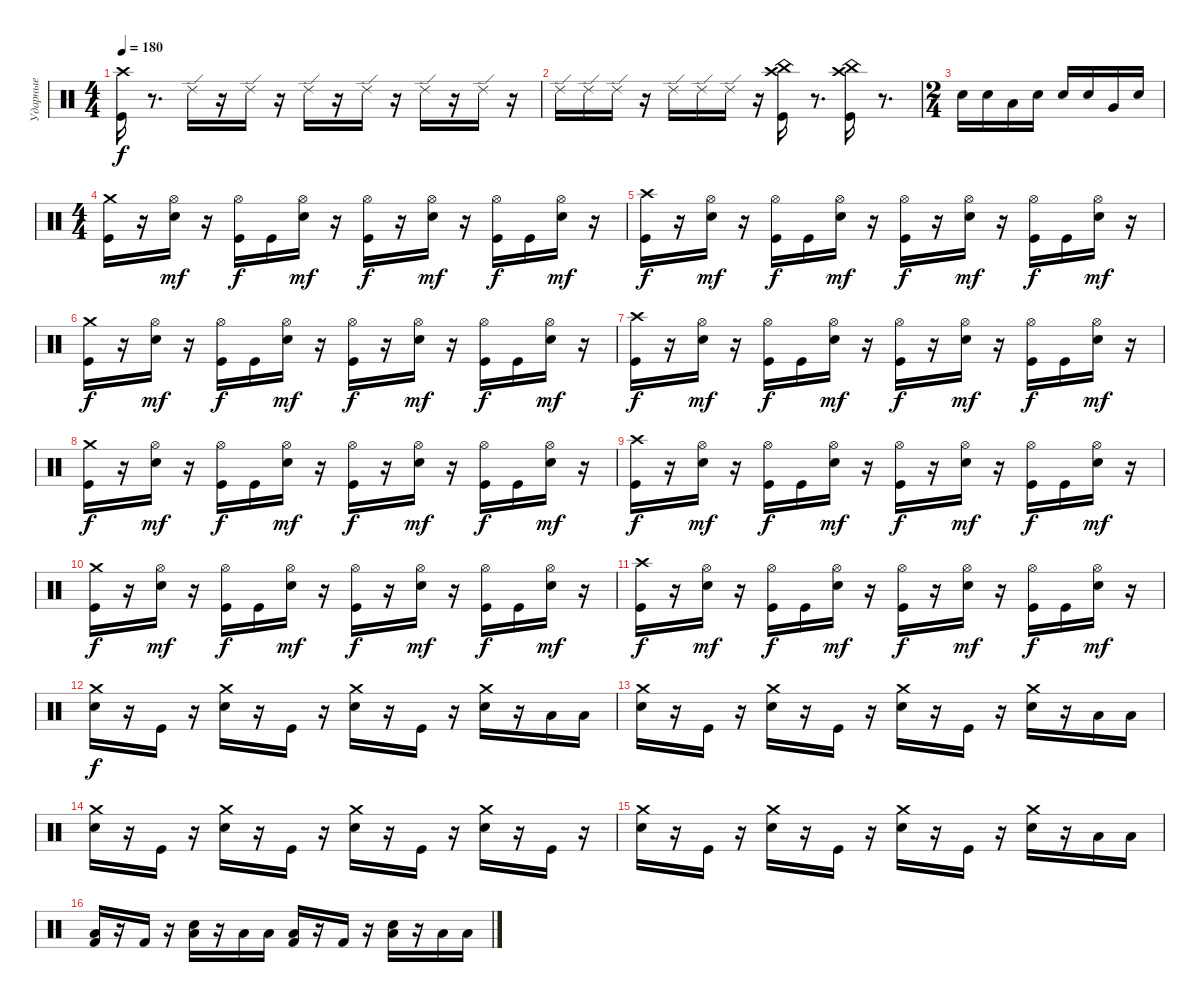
\track ("Ударные" "Ударные") {instrument percussion}
\staff {score}
\articulation defaults
\ts (4 4)
\tempo 180
\clef neutral
\ks c
("Kick (hit)" "Crash high (hit)").16{dy f} r.8{d} "Ride (edge) 2".16 r.16 "Ride (edge) 2".16 r.16 "Ride (edge) 2".16 r.16 "Ride (edge) 2".16 r.16 "Ride (edge) 2".16 r.16 "Ride (edge) 2".16 r.16 |
"Ride (edge) 2".16 "Ride (edge) 2".16 "Ride (edge) 2".16 r.16 "Ride (edge) 2".16 "Ride (edge) 2".16 "Ride (edge) 2".16 r.16 ("China (hit)" "Crash high (hit)" "Kick (hit)").16 r.8{d} ("China (hit)" "Crash high (hit)" "Kick (hit)").16 r.8{d} |
\ts (2 4)
"Electric Snare (hit)".16 "Electric Snare (hit)".16 "Low Floor Tom (hit)".16 "Electric Snare (hit)".16 "Electric Snare (hit)".16 "Electric Snare (hit)".16 "Very Low Tom (hit)".16 "Electric Snare (hit)".16 |
\ts (4 4)
("Kick (hit)" "Crash medium (hit)").16 r.16 ("Electric Snare (hit)" "Hi-Hat (open)").16{dy mf} r.16 ("Kick (hit)" "Hi-Hat (open)").16{dy f} "Kick (hit)".16 ("Electric Snare (hit)" "Hi-Hat (open)").16{dy mf} r.16 ("Kick (hit)" "Hi-Hat (open)").16{dy f} r.16 ("Electric Snare (hit)" "Hi-Hat (open)").16{dy mf} r.16 ("Kick (hit)" "Hi-Hat (open)").16{dy f} "Kick (hit)".16 ("Electric Snare (hit)" "Hi-Hat (open)").16{dy mf} r.16 |
("Kick (hit)" "Crash high (hit)").16{dy f} r.16 ("Electric Snare (hit)" "Hi-Hat (open)").16{dy mf} r.16 ("Kick (hit)" "Hi-Hat (open)").16{dy f} "Kick (hit)".16 ("Electric Snare (hit)" "Hi-Hat (open)").16{dy mf} r.16 ("Kick (hit)" "Hi-Hat (open)").16{dy f} r.16 ("Electric Snare (hit)" "Hi-Hat (open)").16{dy mf} r.16 ("Kick (hit)" "Hi-Hat (open)").16{dy f} "Kick (hit)".16 ("Electric Snare (hit)" "Hi-Hat (open)").16{dy mf} r.16 |
("Crash medium (hit)" "Kick (hit)").16{dy f} r.16 ("Electric Snare (hit)" "Hi-Hat (open)").16{dy mf} r.16 ("Kick (hit)" "Hi-Hat (open)").16{dy f} "Kick (hit)".16 ("Electric Snare (hit)" "Hi-Hat (open)").16{dy mf} r.16 ("Kick (hit)" "Hi-Hat (open)").16{dy f} r.16 ("Electric Snare (hit)" "Hi-Hat (open)").16{dy mf} r.16 ("Kick (hit)" "Hi-Hat (open)").16{dy f} "Kick (hit)".16 ("Electric Snare (hit)" "Hi-Hat (open)").16{dy mf} r.16 |
("Kick (hit)" "Crash high (hit)").16{dy f} r.16 ("Electric Snare (hit)" "Hi-Hat (open)").16{dy mf} r.16 ("Kick (hit)" "Hi-Hat (open)").16{dy f} "Kick (hit)".16 ("Electric Snare (hit)" "Hi-Hat (open)").16{dy mf} r.16 ("Kick (hit)" "Hi-Hat (open)").16{dy f} r.16 ("Electric Snare (hit)" "Hi-Hat (open)").16{dy mf} r.16 ("Kick (hit)" "Hi-Hat (open)").16{dy f} "Kick (hit)".16 ("Electric Snare (hit)" "Hi-Hat (open)").16{dy mf} r.16 |
("Crash medium (hit)" "Kick (hit)").16{dy f} r.16 ("Electric Snare (hit)" "Hi-Hat (open)").16{dy mf} r.16 ("Kick (hit)" "Hi-Hat (open)").16{dy f} "Kick (hit)".16 ("Electric Snare (hit)" "Hi-Hat (open)").16{dy mf} r.16 ("Kick (hit)" "Hi-Hat (open)").16{dy f} r.16 ("Electric Snare (hit)" "Hi-Hat (open)").16{dy mf} r.16 ("Kick (hit)" "Hi-Hat (open)").16{dy f} "Kick (hit)".16 ("Electric Snare (hit)" "Hi-Hat (open)").16{dy mf} r.16 |
("Kick (hit)" "Crash high (hit)").16{dy f} r.16 ("Electric Snare (hit)" "Hi-Hat (open)").16{dy mf} r.16 ("Kick (hit)" "Hi-Hat (open)").16{dy f} "Kick (hit)".16 ("Electric Snare (hit)" "Hi-Hat (open)").16{dy mf} r.16 ("Kick (hit)" "Hi-Hat (open)").16{dy f} r.16 ("Electric Snare (hit)" "Hi-Hat (open)").16{dy mf} r.16 ("Kick (hit)" "Hi-Hat (open)").16{dy f} "Kick (hit)".16 ("Electric Snare (hit)" "Hi-Hat (open)").16{dy mf} r.16 |
("Crash medium (hit)" "Kick (hit)").16{dy f} r.16 ("Electric Snare (hit)" "Hi-Hat (open)").16{dy mf} r.16 ("Kick (hit)" "Hi-Hat (open)").16{dy f} "Kick (hit)".16 ("Electric Snare (hit)" "Hi-Hat (open)").16{dy mf} r.16 ("Kick (hit)" "Hi-Hat (open)").16{dy f} r.16 ("Electric Snare (hit)" "Hi-Hat (open)").16{dy mf} r.16 ("Kick (hit)" "Hi-Hat (open)").16{dy f} "Kick (hit)".16 ("Electric Snare (hit)" "Hi-Hat (open)").16{dy mf} r.16 |
("Kick (hit)" "Crash high (hit)").16{dy f} r.16 ("Electric Snare (hit)" "Hi-Hat (open)").16{dy mf} r.16 ("Kick (hit)" "Hi-Hat (open)").16{dy f} "Kick (hit)".16 ("Electric Snare (hit)" "Hi-Hat (open)").16{dy mf} r.16 ("Kick (hit)" "Hi-Hat (open)").16{dy f} r.16 ("Electric Snare (hit)" "Hi-Hat (open)").16{dy mf} r.16 ("Kick (hit)" "Hi-Hat (open)").16{dy f} "Kick (hit)".16 ("Electric Snare (hit)" "Hi-Hat (open)").16{dy mf} r.16 |
("Electric Snare (hit)" "Crash medium (hit)").16{dy f} r.16 "Kick (hit)".16 r.16 ("Electric Snare (hit)" "Crash medium (hit)").16 r.16 "Kick (hit)".16 r.16 ("Electric Snare (hit)" "Crash medium (hit)").16 r.16 "Kick (hit)".16 r.16 ("Electric Snare (hit)" "Crash medium (hit)").16 r.16 "Low Tom (hit)".16 "Low Floor Tom (hit)".16 |
("Electric Snare (hit)" "Crash medium (hit)").16 r.16 "Kick (hit)".16 r.16 ("Electric Snare (hit)" "Crash medium (hit)").16 r.16 "Kick (hit)".16 r.16 ("Electric Snare (hit)" "Crash medium (hit)").16 r.16 "Kick (hit)".16 r.16 ("Electric Snare (hit)" "Crash medium (hit)").16 r.16 "Low Tom (hit)".16 "Low Floor Tom (hit)".16 |
("Crash medium (hit)" "Electric Snare (hit)").16 r.16 "Kick (hit)".16 r.16 ("Electric Snare (hit)" "Crash medium (hit)").16 r.16 "Kick (hit)".16 r.16 ("Electric Snare (hit)" "Crash medium (hit)").16 r.16 "Kick (hit)".16 r.16 ("Electric Snare (hit)" "Crash medium (hit)").16 r.16 "Kick (hit)".16 r.16 |
("Electric Snare (hit)" "Crash medium (hit)").16 r.16 "Kick (hit)".16 r.16 ("Electric Snare (hit)" "Crash medium (hit)").16 r.16 "Kick (hit)".16 r.16 ("Electric Snare (hit)" "Crash medium (hit)").16 r.16 "Kick (hit)".16 r.16 ("Electric Snare (hit)" "Crash medium (hit)").16 r.16 "Low Tom (hit)".16 "Low Floor Tom (hit)".16 |
("Kick (hit) 2" "Low Tom (hit)").16 r.16 "Kick (hit) 2".16 r.16 ("Electric Snare (hit)" "Low Tom (hit)").16 r.16 "Low Tom (hit)".16 "Low Floor Tom (hit)".16 ("Kick (hit) 2" "Low Tom (hit)").16 r.16 "Kick (hit) 2".16 r.16 ("Electric Snare (hit)" "Low Tom (hit)").16 r.16 "Low Tom (hit)".16 "Low Floor Tom (hit)".16
